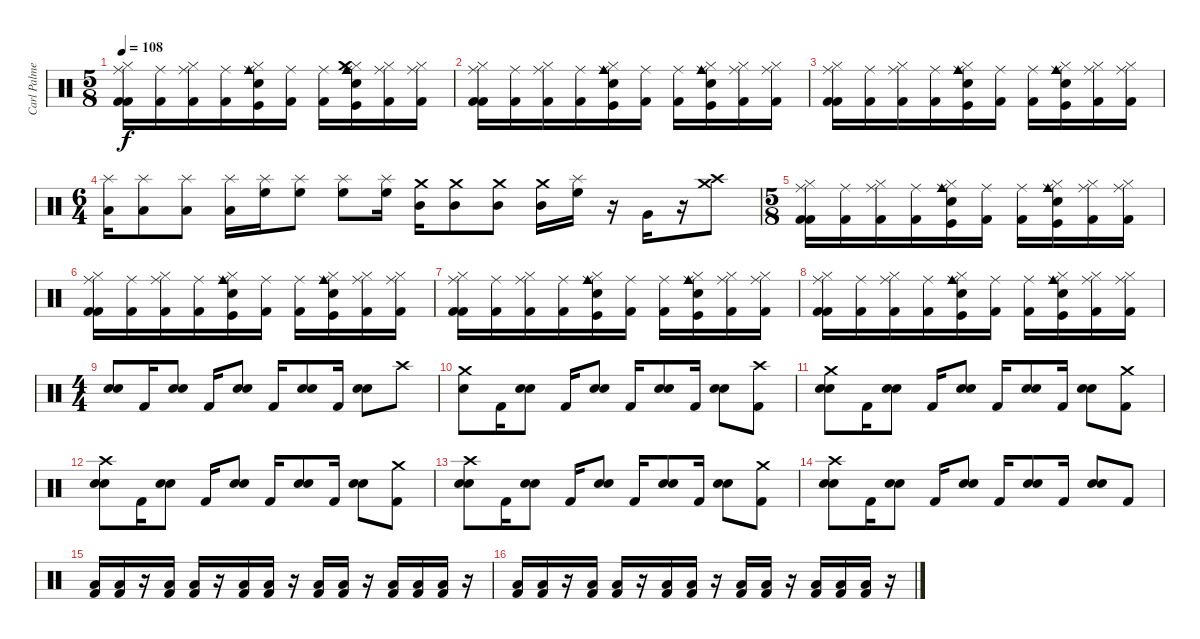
\track ("Carl Palmer (Percussion)" "Carl Palme") {instrument percussion}
\staff {score}
\articulation defaults
\ts (5 8)
\tempo 108
\clef neutral
\ks c
("Hi-Hat (closed)" "Kick (hit) 2" "Kick (hit) 2" "Ride (middle)").16{dy f} ("Ride (middle)" "Kick (hit) 2").16 ("Hi-Hat (closed)" "Ride (middle)" "Kick (hit) 2").16 ("Ride (middle)" "Kick (hit) 2").16 ("Hi-Hat (closed)" "Electric Snare (hit)" "Kick (hit)" "Cowbell medium (hit)" "Ride (middle)").16 ("Ride (middle)" "Kick (hit) 2").16 ("Ride (middle)" "Kick (hit) 2").16 ("Hi-Hat (closed)" "Snare (hit) 2" "Kick (hit)" "Crash medium (hit)" "Cowbell medium (hit)" "Ride (middle)").16 ("Hi-Hat (closed)" "Ride (middle)" "Kick (hit) 2").16 ("Hi-Hat (closed)" "Ride (middle)" "Kick (hit) 2").16 |
("Hi-Hat (closed)" "Kick (hit) 2" "Kick (hit) 2" "Ride (middle)").16 ("Ride (middle)" "Kick (hit) 2").16 ("Hi-Hat (closed)" "Ride (middle)" "Kick (hit) 2").16 ("Ride (middle)" "Kick (hit) 2").16 ("Hi-Hat (closed)" "Electric Snare (hit)" "Kick (hit)" "Cowbell medium (hit)" "Ride (middle)").16 ("Ride (middle)" "Kick (hit) 2").16 ("Ride (middle)" "Kick (hit) 2").16 ("Hi-Hat (closed)" "Snare (hit) 2" "Kick (hit)" "Cowbell medium (hit)" "Ride (middle)").16 ("Hi-Hat (closed)" "Ride (middle)" "Kick (hit) 2").16 ("Hi-Hat (closed)" "Ride (middle)" "Kick (hit) 2").16 |
("Hi-Hat (closed)" "Kick (hit) 2" "Kick (hit) 2" "Ride (middle)").16 ("Ride (middle)" "Kick (hit) 2").16 ("Hi-Hat (closed)" "Ride (middle)" "Kick (hit) 2").16 ("Ride (middle)" "Kick (hit) 2").16 ("Hi-Hat (closed)" "Electric Snare (hit)" "Kick (hit)" "Cowbell medium (hit)" "Ride (middle)").16 ("Ride (middle)" "Kick (hit) 2").16 ("Ride (middle)" "Kick (hit) 2").16 ("Hi-Hat (closed)" "Snare (hit) 2" "Kick (hit)" "Cowbell medium (hit)" "Ride (middle)").16 ("Hi-Hat (closed)" "Ride (middle)" "Kick (hit) 2").16 ("Hi-Hat (closed)" "Ride (middle)" "Kick (hit) 2").16 |
\ts (6 4)
("Low Tom (hit)" "Splash (hit)").16 ("Low Tom (hit)" "Splash (hit)").8 ("Low Tom (hit)" "Splash (hit)").8 ("Low Tom (hit)" "Splash (hit)").16 ("High Floor Tom (hit)" "Splash (hit)").16 ("High Floor Tom (hit)" "Splash (hit)").8 ("High Floor Tom (hit)" "Splash (hit)").8 ("High Floor Tom (hit)" "Splash (hit)").16 ("Mid Tom (hit)" "Crash medium (hit)").16 ("Mid Tom (hit)" "Crash medium (hit)").8 ("Mid Tom (hit)" "Crash medium (hit)").8 ("Mid Tom (hit)" "Crash medium (hit)").16 ("High Floor Tom (hit)" "Splash (hit)").16 r.16 "Very Low Tom (hit)".16 r.16 ("Crash medium (hit)" "Crash high (hit)").8 |
\ts (5 8)
("Hi-Hat (closed)" "Kick (hit) 2" "Kick (hit) 2" "Ride (middle)").16 ("Ride (middle)" "Kick (hit) 2").16 ("Hi-Hat (closed)" "Ride (middle)" "Kick (hit) 2").16 ("Ride (middle)" "Kick (hit) 2").16 ("Hi-Hat (closed)" "Electric Snare (hit)" "Kick (hit)" "Cowbell medium (hit)" "Ride (middle)").16 ("Ride (middle)" "Kick (hit) 2").16 ("Ride (middle)" "Kick (hit) 2").16 ("Hi-Hat (closed)" "Snare (hit) 2" "Kick (hit)" "Cowbell medium (hit)" "Ride (middle)").16 ("Hi-Hat (closed)" "Ride (middle)" "Kick (hit) 2").16 ("Hi-Hat (closed)" "Ride (middle)" "Kick (hit) 2").16 |
("Hi-Hat (closed)" "Kick (hit) 2" "Kick (hit) 2" "Ride (middle)").16 ("Ride (middle)" "Kick (hit) 2").16 ("Hi-Hat (closed)" "Ride (middle)" "Kick (hit) 2").16 ("Ride (middle)" "Kick (hit) 2").16 ("Hi-Hat (closed)" "Electric Snare (hit)" "Kick (hit)" "Cowbell medium (hit)" "Ride (middle)").16 ("Ride (middle)" "Kick (hit) 2").16 ("Ride (middle)" "Kick (hit) 2").16 ("Hi-Hat (closed)" "Snare (hit) 2" "Kick (hit)" "Cowbell medium (hit)" "Ride (middle)").16 ("Hi-Hat (closed)" "Ride (middle)" "Kick (hit) 2").16 ("Hi-Hat (closed)" "Ride (middle)" "Kick (hit) 2").16 |
("Hi-Hat (closed)" "Kick (hit) 2" "Kick (hit) 2" "Ride (middle)").16 ("Ride (middle)" "Kick (hit) 2").16 ("Hi-Hat (closed)" "Ride (middle)" "Kick (hit) 2").16 ("Ride (middle)" "Kick (hit) 2").16 ("Hi-Hat (closed)" "Electric Snare (hit)" "Kick (hit)" "Cowbell medium (hit)" "Ride (middle)").16 ("Ride (middle)" "Kick (hit) 2").16 ("Ride (middle)" "Kick (hit) 2").16 ("Hi-Hat (closed)" "Snare (hit) 2" "Kick (hit)" "Cowbell medium (hit)" "Ride (middle)").16 ("Hi-Hat (closed)" "Ride (middle)" "Kick (hit) 2").16 ("Hi-Hat (closed)" "Ride (middle)" "Kick (hit) 2").16 |
("Hi-Hat (closed)" "Kick (hit) 2" "Kick (hit) 2" "Ride (middle)").16 ("Ride (middle)" "Kick (hit) 2").16 ("Hi-Hat (closed)" "Ride (middle)" "Kick (hit) 2").16 ("Ride (middle)" "Kick (hit) 2").16 ("Hi-Hat (closed)" "Electric Snare (hit)" "Kick (hit)" "Cowbell medium (hit)" "Ride (middle)").16 ("Ride (middle)" "Kick (hit) 2").16 ("Ride (middle)" "Kick (hit) 2").16 ("Hi-Hat (closed)" "Snare (hit) 2" "Kick (hit)" "Cowbell medium (hit)" "Ride (middle)").16 ("Hi-Hat (closed)" "Ride (middle)" "Kick (hit) 2").16 ("Hi-Hat (closed)" "Ride (middle)" "Kick (hit) 2").16 |
\ts (4 4)
("Electric Snare (hit)" "Snare (hit) 2").8 "Kick (hit) 2".16 ("Electric Snare (hit)" "Snare (hit) 2").8 "Kick (hit) 2".16 ("Electric Snare (hit)" "Snare (hit) 2").8 "Kick (hit) 2".16 ("Electric Snare (hit)" "Snare (hit) 2").8 "Kick (hit) 2".16 ("Electric Snare (hit)" "Snare (hit) 2").8 "Crash high (hit)".8 |
("Crash medium (hit)" "Snare (hit) 2").8 "Kick (hit) 2".16 ("Electric Snare (hit)" "Snare (hit) 2").8 "Kick (hit) 2".16 ("Electric Snare (hit)" "Snare (hit) 2").8 "Kick (hit) 2".16 ("Electric Snare (hit)" "Snare (hit) 2").8 "Kick (hit) 2".16 ("Electric Snare (hit)" "Snare (hit) 2").8 ("Kick (hit) 2" "Crash high (hit)").8 |
("Electric Snare (hit)" "Snare (hit) 2" "Crash medium (hit)").8 "Kick (hit) 2".16 ("Electric Snare (hit)" "Snare (hit) 2").8 "Kick (hit) 2".16 ("Electric Snare (hit)" "Snare (hit) 2").8 "Kick (hit) 2".16 ("Electric Snare (hit)" "Snare (hit) 2").8 "Kick (hit) 2".16 ("Electric Snare (hit)" "Snare (hit) 2").8 ("Kick (hit) 2" "Crash medium (hit)").8 |
("Electric Snare (hit)" "Snare (hit) 2" "Crash high (hit)").8 "Kick (hit) 2".16 ("Electric Snare (hit)" "Snare (hit) 2").8 "Kick (hit) 2".16 ("Electric Snare (hit)" "Snare (hit) 2").8 "Kick (hit) 2".16 ("Electric Snare (hit)" "Snare (hit) 2").8 "Kick (hit) 2".16 ("Electric Snare (hit)" "Snare (hit) 2").8 ("Kick (hit) 2" "Crash medium (hit)").8 |
("Electric Snare (hit)" "Snare (hit) 2" "Crash high (hit)").8 "Kick (hit) 2".16 ("Electric Snare (hit)" "Snare (hit) 2").8 "Kick (hit) 2".16 ("Electric Snare (hit)" "Snare (hit) 2").8 "Kick (hit) 2".16 ("Electric Snare (hit)" "Snare (hit) 2").8 "Kick (hit) 2".16 ("Electric Snare (hit)" "Snare (hit) 2").8 ("Kick (hit) 2" "Crash medium (hit)").8 |
("Electric Snare (hit)" "Snare (hit) 2" "Crash high (hit)").8 "Kick (hit) 2".16 ("Electric Snare (hit)" "Snare (hit) 2").8 "Kick (hit) 2".16 ("Electric Snare (hit)" "Snare (hit) 2").8 "Kick (hit) 2".16 ("Electric Snare (hit)" "Snare (hit) 2").8 "Kick (hit) 2".16 ("Electric Snare (hit)" "Snare (hit) 2").8 "Kick (hit) 2".8 |
("Kick (hit) 2" "Low Tom (hit)").16 ("Kick (hit) 2" "Low Tom (hit)").16 r.16 ("Kick (hit) 2" "Low Tom (hit)").16 ("Kick (hit) 2" "Low Tom (hit)").16 r.16 ("Kick (hit) 2" "Low Tom (hit)").16 ("Kick (hit) 2" "Low Tom (hit)").16 r.16 ("Kick (hit) 2" "Low Tom (hit)").16 ("Kick (hit) 2" "Low Tom (hit)").16 r.16 ("Kick (hit) 2" "Low Tom (hit)").16 ("Kick (hit) 2" "Low Tom (hit)").16 ("Kick (hit) 2" "Low Tom (hit)").16 r.16 |
("Kick (hit) 2" "Low Tom (hit)").16 ("Kick (hit) 2" "Low Tom (hit)").16 r.16 ("Kick (hit) 2" "Low Tom (hit)").16 ("Kick (hit) 2" "Low Tom (hit)").16 r.16 ("Kick (hit) 2" "Low Tom (hit)").16 ("Kick (hit) 2" "Low Tom (hit)").16 r.16 ("Kick (hit) 2" "Low Tom (hit)").16 ("Kick (hit) 2" "Low Tom (hit)").16 r.16 ("Kick (hit) 2" "Low Tom (hit)").16 ("Kick (hit) 2" "Low Tom (hit)").16 ("Kick (hit) 2" "Low Tom (hit)").16 r.16
